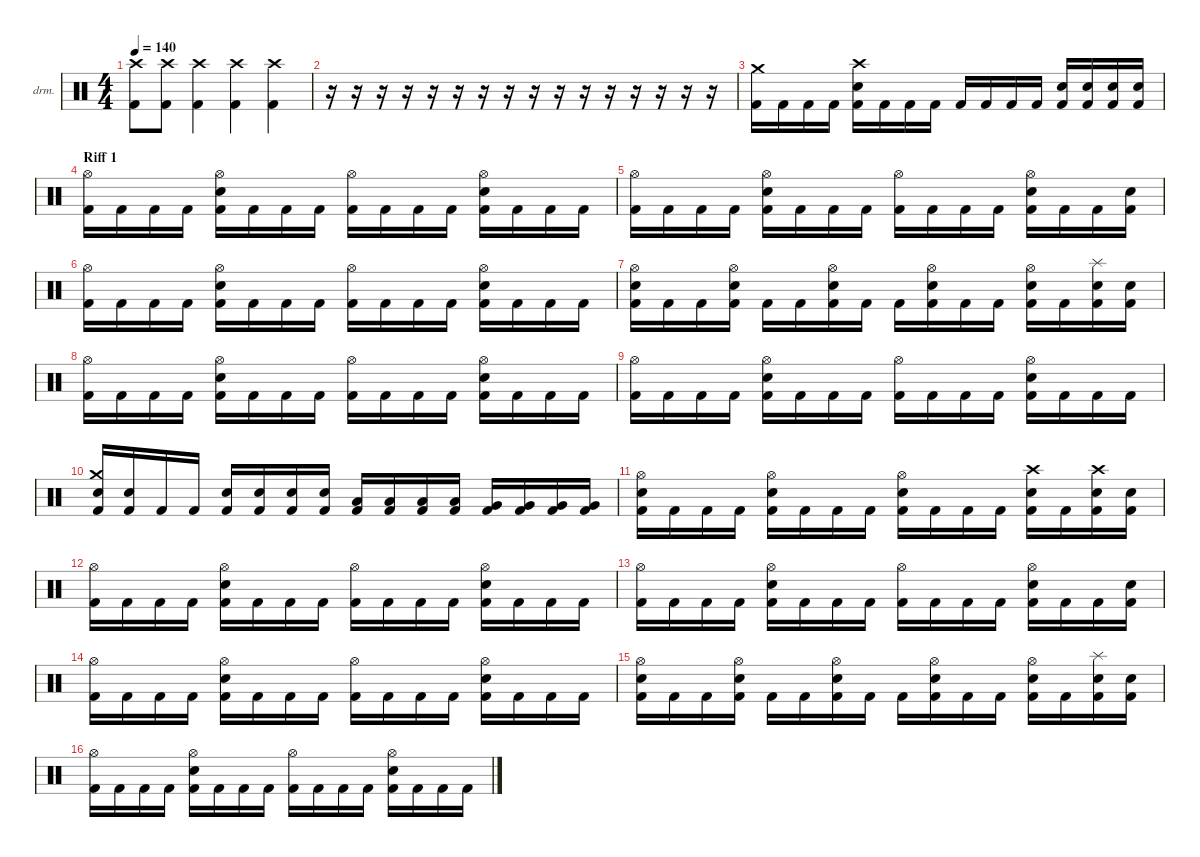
\defaultSystemsLayout 4
\hideDynamics
\bracketExtendMode nobrackets
\firstSystemTrackNameOrientation horizontal
\otherSystemsTrackNameOrientation horizontal
\track ("Drumkit" "drm.") {instrument percussion}
\staff {score}
\articulation defaults
\ts (4 4)
\tempo 140
\clef neutral
\ks c
("Crash high (hit)" "Kick (hit) 2").8{dy f} ("Crash high (hit)" "Kick (hit) 2").8 ("Crash high (hit)" "Kick (hit) 2").4 ("Crash high (hit)" "Kick (hit) 2").4 ("Crash high (hit)" "Kick (hit) 2").4 |
r.16 r.16 r.16 r.16 r.16 r.16 r.16 r.16 r.16 r.16 r.16 r.16 r.16 r.16 r.16 r.16 |
("Crash medium (hit)" "Kick (hit) 2").16 "Kick (hit) 2".16 "Kick (hit) 2".16 "Kick (hit) 2".16 ("Crash high (hit)" "Snare (hit) 2" "Kick (hit) 2").16 "Kick (hit) 2".16 "Kick (hit) 2".16 "Kick (hit) 2".16 "Kick (hit) 2".16 "Kick (hit) 2".16 "Kick (hit) 2".16 "Kick (hit) 2".16 ("Snare (hit) 2" "Kick (hit) 2").16 ("Snare (hit) 2" "Kick (hit) 2").16 ("Snare (hit) 2" "Kick (hit) 2").16 ("Snare (hit) 2" "Kick (hit) 2").16 |
\section ("" "Riff 1")
("Hi-Hat (open)" "Kick (hit) 2").16{dy ff} "Kick (hit) 2".16 "Kick (hit) 2".16 "Kick (hit) 2".16 ("Hi-Hat (open)" "Snare (hit) 2" "Kick (hit) 2").16 "Kick (hit) 2".16 "Kick (hit) 2".16 "Kick (hit) 2".16 ("Hi-Hat (open)" "Kick (hit) 2").16 "Kick (hit) 2".16 "Kick (hit) 2".16 "Kick (hit) 2".16 ("Hi-Hat (open)" "Snare (hit) 2" "Kick (hit) 2").16 "Kick (hit) 2".16 "Kick (hit) 2".16 "Kick (hit) 2".16 |
("Hi-Hat (open)" "Kick (hit) 2").16 "Kick (hit) 2".16 "Kick (hit) 2".16 "Kick (hit) 2".16 ("Hi-Hat (open)" "Snare (hit) 2" "Kick (hit) 2").16 "Kick (hit) 2".16 "Kick (hit) 2".16 "Kick (hit) 2".16 ("Hi-Hat (open)" "Kick (hit) 2").16 "Kick (hit) 2".16 "Kick (hit) 2".16 "Kick (hit) 2".16 ("Hi-Hat (open)" "Snare (hit) 2" "Kick (hit) 2").16 "Kick (hit) 2".16 "Kick (hit) 2".16 ("Snare (hit) 2" "Kick (hit) 2").16 |
("Hi-Hat (open)" "Kick (hit) 2").16 "Kick (hit) 2".16 "Kick (hit) 2".16 "Kick (hit) 2".16 ("Hi-Hat (open)" "Snare (hit) 2" "Kick (hit) 2").16 "Kick (hit) 2".16 "Kick (hit) 2".16 "Kick (hit) 2".16 ("Hi-Hat (open)" "Kick (hit) 2").16 "Kick (hit) 2".16 "Kick (hit) 2".16 "Kick (hit) 2".16 ("Hi-Hat (open)" "Snare (hit) 2" "Kick (hit) 2").16 "Kick (hit) 2".16 "Kick (hit) 2".16 "Kick (hit) 2".16 |
("Hi-Hat (open)" "Snare (hit) 2" "Kick (hit) 2").16 "Kick (hit) 2".16 "Kick (hit) 2".16 ("Hi-Hat (open)" "Snare (hit) 2" "Kick (hit) 2").16 "Kick (hit) 2".16 "Kick (hit) 2".16 ("Hi-Hat (open)" "Snare (hit) 2" "Kick (hit) 2").16 "Kick (hit) 2".16 "Kick (hit) 2".16 ("Hi-Hat (open)" "Snare (hit) 2" "Kick (hit) 2").16 "Kick (hit) 2".16 "Kick (hit) 2".16 ("Hi-Hat (open)" "Snare (hit) 2" "Kick (hit) 2").16 "Kick (hit) 2".16 ("Splash (hit)" "Snare (hit) 2" "Kick (hit) 2").16 ("Snare (hit) 2" "Kick (hit) 2").16 |
("Hi-Hat (open)" "Kick (hit) 2").16 "Kick (hit) 2".16 "Kick (hit) 2".16 "Kick (hit) 2".16 ("Hi-Hat (open)" "Snare (hit) 2" "Kick (hit) 2").16 "Kick (hit) 2".16 "Kick (hit) 2".16 "Kick (hit) 2".16 ("Hi-Hat (open)" "Kick (hit) 2").16 "Kick (hit) 2".16 "Kick (hit) 2".16 "Kick (hit) 2".16 ("Hi-Hat (open)" "Snare (hit) 2" "Kick (hit) 2").16 "Kick (hit) 2".16 "Kick (hit) 2".16 "Kick (hit) 2".16 |
("Hi-Hat (open)" "Kick (hit) 2").16 "Kick (hit) 2".16 "Kick (hit) 2".16 "Kick (hit) 2".16 ("Hi-Hat (open)" "Snare (hit) 2" "Kick (hit) 2").16 "Kick (hit) 2".16 "Kick (hit) 2".16 "Kick (hit) 2".16 ("Hi-Hat (open)" "Kick (hit) 2").16 "Kick (hit) 2".16 "Kick (hit) 2".16 "Kick (hit) 2".16 ("Hi-Hat (open)" "Snare (hit) 2" "Kick (hit) 2").16 "Kick (hit) 2".16 "Kick (hit) 2".16 "Kick (hit) 2".16 |
("Crash medium (hit)" "Snare (hit) 2" "Kick (hit) 2").16{dy mf} ("Snare (hit) 2" "Kick (hit) 2").16 "Kick (hit) 2".16 "Kick (hit) 2".16 ("Snare (hit) 2" "Kick (hit) 2").16 ("Snare (hit) 2" "Kick (hit) 2").16 ("Snare (hit) 2" "Kick (hit) 2").16 ("Snare (hit) 2" "Kick (hit) 2").16 ("Low Tom (hit)" "Kick (hit) 2").16 ("Low Tom (hit)" "Kick (hit) 2").16 ("Low Tom (hit)" "Kick (hit) 2").16 ("Low Tom (hit)" "Kick (hit) 2").16 ("Very Low Tom (hit)" "Kick (hit) 2").16 ("Very Low Tom (hit)" "Kick (hit) 2").16 ("Very Low Tom (hit)" "Kick (hit) 2").16 ("Very Low Tom (hit)" "Kick (hit) 2").16 |
("Hi-Hat (open)" "Snare (hit) 2" "Kick (hit) 2").16 "Kick (hit) 2".16 "Kick (hit) 2".16 "Kick (hit) 2".16 ("Hi-Hat (open)" "Snare (hit) 2" "Kick (hit) 2").16 "Kick (hit) 2".16 "Kick (hit) 2".16 "Kick (hit) 2".16 ("Hi-Hat (open)" "Snare (hit) 2" "Kick (hit) 2").16 "Kick (hit) 2".16 "Kick (hit) 2".16 "Kick (hit) 2".16 ("Crash high (hit)" "Snare (hit) 2" "Kick (hit) 2").16 "Kick (hit) 2".16 ("Crash high (hit)" "Snare (hit) 2" "Kick (hit) 2").16 ("Snare (hit) 2" "Kick (hit) 2").16 |
("Hi-Hat (open)" "Kick (hit) 2").16{dy ff} "Kick (hit) 2".16 "Kick (hit) 2".16 "Kick (hit) 2".16 ("Hi-Hat (open)" "Snare (hit) 2" "Kick (hit) 2").16 "Kick (hit) 2".16 "Kick (hit) 2".16 "Kick (hit) 2".16 ("Hi-Hat (open)" "Kick (hit) 2").16 "Kick (hit) 2".16 "Kick (hit) 2".16 "Kick (hit) 2".16 ("Hi-Hat (open)" "Snare (hit) 2" "Kick (hit) 2").16 "Kick (hit) 2".16 "Kick (hit) 2".16 "Kick (hit) 2".16 |
("Hi-Hat (open)" "Kick (hit) 2").16 "Kick (hit) 2".16 "Kick (hit) 2".16 "Kick (hit) 2".16 ("Hi-Hat (open)" "Snare (hit) 2" "Kick (hit) 2").16 "Kick (hit) 2".16 "Kick (hit) 2".16 "Kick (hit) 2".16 ("Hi-Hat (open)" "Kick (hit) 2").16 "Kick (hit) 2".16 "Kick (hit) 2".16 "Kick (hit) 2".16 ("Hi-Hat (open)" "Snare (hit) 2" "Kick (hit) 2").16 "Kick (hit) 2".16 "Kick (hit) 2".16 ("Snare (hit) 2" "Kick (hit) 2").16 |
("Hi-Hat (open)" "Kick (hit) 2").16 "Kick (hit) 2".16 "Kick (hit) 2".16 "Kick (hit) 2".16 ("Hi-Hat (open)" "Snare (hit) 2" "Kick (hit) 2").16 "Kick (hit) 2".16 "Kick (hit) 2".16 "Kick (hit) 2".16 ("Hi-Hat (open)" "Kick (hit) 2").16 "Kick (hit) 2".16 "Kick (hit) 2".16 "Kick (hit) 2".16 ("Hi-Hat (open)" "Snare (hit) 2" "Kick (hit) 2").16 "Kick (hit) 2".16 "Kick (hit) 2".16 "Kick (hit) 2".16 |
("Hi-Hat (open)" "Snare (hit) 2" "Kick (hit) 2").16 "Kick (hit) 2".16 "Kick (hit) 2".16 ("Hi-Hat (open)" "Snare (hit) 2" "Kick (hit) 2").16 "Kick (hit) 2".16 "Kick (hit) 2".16 ("Hi-Hat (open)" "Snare (hit) 2" "Kick (hit) 2").16 "Kick (hit) 2".16 "Kick (hit) 2".16 ("Hi-Hat (open)" "Snare (hit) 2" "Kick (hit) 2").16 "Kick (hit) 2".16 "Kick (hit) 2".16 ("Hi-Hat (open)" "Snare (hit) 2" "Kick (hit) 2").16 "Kick (hit) 2".16 ("Splash (hit)" "Snare (hit) 2" "Kick (hit) 2").16 ("Snare (hit) 2" "Kick (hit) 2").16 |
("Hi-Hat (open)" "Kick (hit) 2").16 "Kick (hit) 2".16 "Kick (hit) 2".16 "Kick (hit) 2".16 ("Hi-Hat (open)" "Snare (hit) 2" "Kick (hit) 2").16 "Kick (hit) 2".16 "Kick (hit) 2".16 "Kick (hit) 2".16 ("Hi-Hat (open)" "Kick (hit) 2").16 "Kick (hit) 2".16 "Kick (hit) 2".16 "Kick (hit) 2".16 ("Hi-Hat (open)" "Snare (hit) 2" "Kick (hit) 2").16 "Kick (hit) 2".16 "Kick (hit) 2".16 "Kick (hit) 2".16
